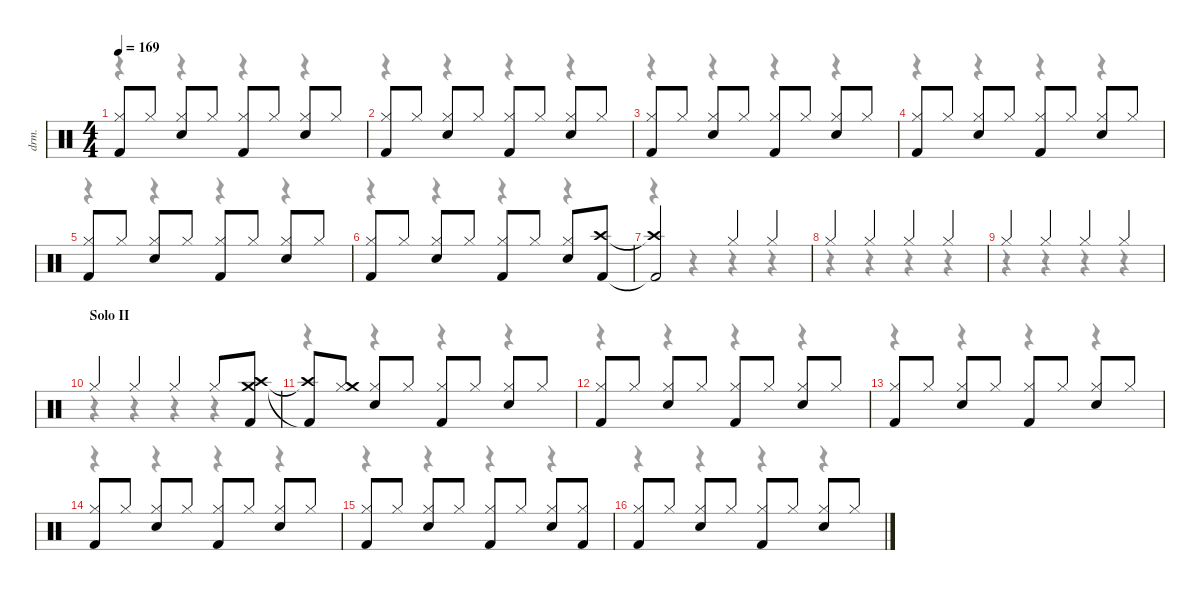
\defaultSystemsLayout 4
\hideDynamics
\bracketExtendMode nobrackets
\otherSystemsTrackNameOrientation horizontal
\track ("Drums" "drm.") {instrument percussion}
\staff {score}
\articulation defaults
\voice
\ts (4 4)
\tempo 169
\clef neutral
\ks c
("Hi-Hat (closed)" "Kick (hit) 2").8{dy f} "Hi-Hat (closed)".8 ("Hi-Hat (closed)" "Snare (hit) 2").8 "Hi-Hat (closed)".8 ("Hi-Hat (closed)" "Kick (hit) 2").8 "Hi-Hat (closed)".8 ("Hi-Hat (closed)" "Snare (hit) 2").8 "Hi-Hat (closed)".8 |
("Hi-Hat (closed)" "Kick (hit) 2").8 "Hi-Hat (closed)".8 ("Hi-Hat (closed)" "Snare (hit) 2").8 "Hi-Hat (closed)".8 ("Hi-Hat (closed)" "Kick (hit) 2").8 "Hi-Hat (closed)".8 ("Hi-Hat (closed)" "Snare (hit) 2").8 "Hi-Hat (closed)".8 |
("Hi-Hat (closed)" "Kick (hit) 2").8 "Hi-Hat (closed)".8 ("Hi-Hat (closed)" "Snare (hit) 2").8 "Hi-Hat (closed)".8 ("Hi-Hat (closed)" "Kick (hit) 2").8 "Hi-Hat (closed)".8 ("Hi-Hat (closed)" "Snare (hit) 2").8 "Hi-Hat (closed)".8 |
("Hi-Hat (closed)" "Kick (hit) 2").8 "Hi-Hat (closed)".8 ("Hi-Hat (closed)" "Snare (hit) 2").8 "Hi-Hat (closed)".8 ("Hi-Hat (closed)" "Kick (hit) 2").8 "Hi-Hat (closed)".8 ("Hi-Hat (closed)" "Snare (hit) 2").8 "Hi-Hat (closed)".8 |
("Hi-Hat (closed)" "Kick (hit) 2").8 "Hi-Hat (closed)".8 ("Hi-Hat (closed)" "Snare (hit) 2").8 "Hi-Hat (closed)".8 ("Hi-Hat (closed)" "Kick (hit) 2").8 "Hi-Hat (closed)".8 ("Hi-Hat (closed)" "Snare (hit) 2").8 "Hi-Hat (closed)".8 |
("Hi-Hat (closed)" "Kick (hit) 2").8 "Hi-Hat (closed)".8 ("Hi-Hat (closed)" "Snare (hit) 2").8 "Hi-Hat (closed)".8 ("Hi-Hat (closed)" "Kick (hit) 2").8 "Hi-Hat (closed)".8 ("Hi-Hat (closed)" "Snare (hit) 2").8 ("Crash high (hit)" "Kick (hit) 2").8 |
("Crash high (hit)"{t} "Kick (hit) 2"{t}).2 "Hi-Hat (closed)".4 "Hi-Hat (closed)".4 |
"Hi-Hat (closed)".4 "Hi-Hat (closed)".4 "Hi-Hat (closed)".4 "Hi-Hat (closed)".4 |
"Hi-Hat (closed)".4 "Hi-Hat (closed)".4 "Hi-Hat (closed)".4 "Hi-Hat (closed)".4 |
\section ("" "Solo II")
"Hi-Hat (closed)".4 "Hi-Hat (closed)".4 "Hi-Hat (closed)".4 "Hi-Hat (closed)".8 ("Crash high (hit)" "Crash medium (hit)" "Kick (hit) 2").8 |
("Crash high (hit)"{t} "Kick (hit) 2"{t}).8 ("Hi-Hat (closed)" "Crash medium (hit)").8 ("Hi-Hat (closed)" "Snare (hit) 2").8 "Hi-Hat (closed)".8 ("Hi-Hat (closed)" "Kick (hit) 2").8 "Hi-Hat (closed)".8 ("Hi-Hat (closed)" "Snare (hit) 2").8 "Hi-Hat (closed)".8 |
("Hi-Hat (closed)" "Kick (hit) 2").8 "Hi-Hat (closed)".8 ("Hi-Hat (closed)" "Snare (hit) 2").8 "Hi-Hat (closed)".8 ("Hi-Hat (closed)" "Kick (hit) 2").8 "Hi-Hat (closed)".8 ("Hi-Hat (closed)" "Snare (hit) 2").8 "Hi-Hat (closed)".8 |
("Hi-Hat (closed)" "Kick (hit) 2").8 "Hi-Hat (closed)".8 ("Hi-Hat (closed)" "Snare (hit) 2").8 "Hi-Hat (closed)".8 ("Hi-Hat (closed)" "Kick (hit) 2").8 "Hi-Hat (closed)".8 ("Hi-Hat (closed)" "Snare (hit) 2").8 "Hi-Hat (closed)".8 |
("Hi-Hat (closed)" "Kick (hit) 2").8 "Hi-Hat (closed)".8 ("Hi-Hat (closed)" "Snare (hit) 2").8 "Hi-Hat (closed)".8 ("Hi-Hat (closed)" "Kick (hit) 2").8 "Hi-Hat (closed)".8 ("Hi-Hat (closed)" "Snare (hit) 2").8 "Hi-Hat (closed)".8 |
("Hi-Hat (closed)" "Kick (hit) 2").8 "Hi-Hat (closed)".8 ("Hi-Hat (closed)" "Snare (hit) 2").8 "Hi-Hat (closed)".8 ("Hi-Hat (closed)" "Kick (hit) 2").8 "Hi-Hat (closed)".8 ("Hi-Hat (closed)" "Snare (hit) 2").8 ("Hi-Hat (closed)" "Kick (hit) 2").8 |
("Hi-Hat (closed)" "Kick (hit) 2").8 "Hi-Hat (closed)".8 ("Hi-Hat (closed)" "Snare (hit) 2").8 "Hi-Hat (closed)".8 ("Hi-Hat (closed)" "Kick (hit) 2").8 "Hi-Hat (closed)".8 ("Hi-Hat (closed)" "Snare (hit) 2").8 "Hi-Hat (closed)".8
\voice
\clef neutral
\ottava regular
\simile none
\ks c
r.4{dy mf} r.4 r.4 r.4 |
r.4 r.4 r.4 r.4 |
r.4 r.4 r.4 r.4 |
r.4 r.4 r.4 r.4 |
r.4 r.4 r.4 r.4 |
r.4 r.4 r.4 r.4 |
r.4 r.4 r.4 r.4 |
r.4 r.4 r.4 r.4 |
r.4 r.4 r.4 r.4 |
r.4 r.4 r.4 r.4 |
r.4 r.4 r.4 r.4 |
r.4 r.4 r.4 r.4 |
r.4 r.4 r.4 r.4 |
r.4 r.4 r.4 r.4 |
r.4 r.4 r.4 r.4 |
r.4 r.4 r.4 r.4
